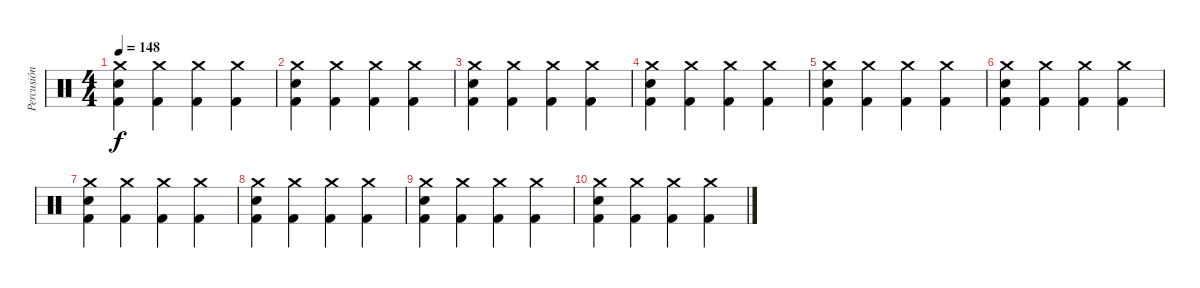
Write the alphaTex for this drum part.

\track ("Percusión" "Percusión") {instrument percussion}
\staff {score}
\articulation defaults
\ts (4 4)
\tempo 148
\clef neutral
\ks c
("Crash medium (hit)" "Snare (hit) 2" "Kick (hit) 2").4{dy f} ("Crash medium (hit)" "Kick (hit) 2").4 ("Crash medium (hit)" "Kick (hit) 2").4 ("Crash medium (hit)" "Kick (hit) 2").4 |
("Crash medium (hit)" "Snare (hit) 2" "Kick (hit) 2").4 ("Crash medium (hit)" "Kick (hit) 2").4 ("Crash medium (hit)" "Kick (hit) 2").4 ("Crash medium (hit)" "Kick (hit) 2").4 |
("Crash medium (hit)" "Snare (hit) 2" "Kick (hit) 2").4 ("Crash medium (hit)" "Kick (hit) 2").4 ("Crash medium (hit)" "Kick (hit) 2").4 ("Crash medium (hit)" "Kick (hit) 2").4 |
("Crash medium (hit)" "Snare (hit) 2" "Kick (hit) 2").4 ("Crash medium (hit)" "Kick (hit) 2").4 ("Crash medium (hit)" "Kick (hit) 2").4 ("Crash medium (hit)" "Kick (hit) 2").4 |
("Crash medium (hit)" "Snare (hit) 2" "Kick (hit) 2").4 ("Crash medium (hit)" "Kick (hit) 2").4 ("Crash medium (hit)" "Kick (hit) 2").4 ("Crash medium (hit)" "Kick (hit) 2").4 |
("Crash medium (hit)" "Snare (hit) 2" "Kick (hit) 2").4 ("Crash medium (hit)" "Kick (hit) 2").4 ("Crash medium (hit)" "Kick (hit) 2").4 ("Crash medium (hit)" "Kick (hit) 2").4 |
("Crash medium (hit)" "Snare (hit) 2" "Kick (hit) 2").4 ("Crash medium (hit)" "Kick (hit) 2").4 ("Crash medium (hit)" "Kick (hit) 2").4 ("Crash medium (hit)" "Kick (hit) 2").4 |
("Crash medium (hit)" "Snare (hit) 2" "Kick (hit) 2").4 ("Crash medium (hit)" "Kick (hit) 2").4 ("Crash medium (hit)" "Kick (hit) 2").4 ("Crash medium (hit)" "Kick (hit) 2").4 |
("Crash medium (hit)" "Snare (hit) 2" "Kick (hit) 2").4 ("Crash medium (hit)" "Kick (hit) 2").4 ("Crash medium (hit)" "Kick (hit) 2").4 ("Crash medium (hit)" "Kick (hit) 2").4 |
("Crash medium (hit)" "Snare (hit) 2" "Kick (hit) 2").4 ("Crash medium (hit)" "Kick (hit) 2").4 ("Crash medium (hit)" "Kick (hit) 2").4 ("Crash medium (hit)" "Kick (hit) 2").4
